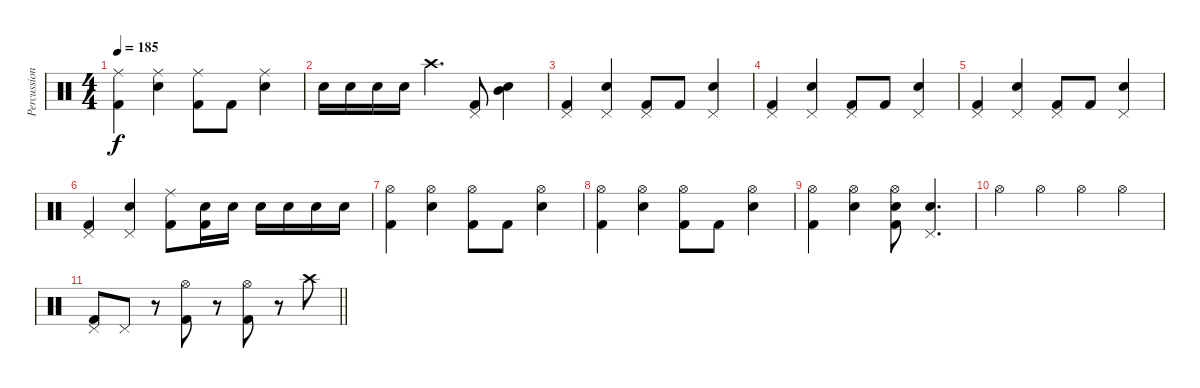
\track ("Percussion" "Percussion") {instrument percussion}
\staff {score}
\articulation defaults
\ts (4 4)
\tempo 185
\clef neutral
\ks c
("Ride (middle)" "Kick (hit) 2").4{dy f} ("Ride (middle)" "Electric Snare (hit)").4 ("Ride (middle)" "Kick (hit) 2").8 "Kick (hit) 2".8 ("Ride (middle)" "Electric Snare (hit)").4 |
"Electric Snare (hit)".16 "Electric Snare (hit)".16 "Electric Snare (hit)".16 "Electric Snare (hit)".16 "Crash high (hit)".4{d} ("Kick (hit) 2" "Pedal Hi-Hat (hit)").8 ("Mid Tom (hit)" "Electric Snare (hit)").4 |
("Pedal Hi-Hat (hit)" "Kick (hit) 2").4 ("Pedal Hi-Hat (hit)" "Electric Snare (hit)").4 ("Pedal Hi-Hat (hit)" "Kick (hit) 2").8 "Kick (hit) 2".8 ("Pedal Hi-Hat (hit)" "Electric Snare (hit)").4 |
("Pedal Hi-Hat (hit)" "Kick (hit) 2").4 ("Pedal Hi-Hat (hit)" "Electric Snare (hit)").4 ("Pedal Hi-Hat (hit)" "Kick (hit) 2").8 "Kick (hit) 2".8 ("Pedal Hi-Hat (hit)" "Electric Snare (hit)").4 |
("Pedal Hi-Hat (hit)" "Kick (hit) 2").4 ("Pedal Hi-Hat (hit)" "Electric Snare (hit)").4 ("Pedal Hi-Hat (hit)" "Kick (hit) 2").8 "Kick (hit) 2".8 ("Pedal Hi-Hat (hit)" "Electric Snare (hit)").4 |
("Pedal Hi-Hat (hit)" "Kick (hit) 2").4 ("Pedal Hi-Hat (hit)" "Electric Snare (hit)").4 ("Ride (middle)" "Kick (hit) 2").8 ("Electric Snare (hit)" "Kick (hit) 2").16 "Electric Snare (hit)".16 "Electric Snare (hit)".16 "Electric Snare (hit)".16 "Electric Snare (hit)".16 "Electric Snare (hit)".16 |
("Hi-Hat (open)" "Kick (hit) 2").4 ("Hi-Hat (open)" "Electric Snare (hit)").4 ("Hi-Hat (open)" "Kick (hit) 2").8 "Kick (hit) 2".8 ("Hi-Hat (open)" "Electric Snare (hit)").4 |
("Hi-Hat (open)" "Kick (hit) 2").4 ("Hi-Hat (open)" "Electric Snare (hit)").4 ("Hi-Hat (open)" "Kick (hit) 2").8 "Kick (hit) 2".8 ("Hi-Hat (open)" "Electric Snare (hit)").4 |
("Hi-Hat (open)" "Kick (hit) 2").4 ("Hi-Hat (open)" "Electric Snare (hit)").4 ("Kick (hit) 2" "Electric Snare (hit)" "Hi-Hat (open)").8 ("Electric Snare (hit)" "Pedal Hi-Hat (hit)").4{d} |
"Hi-Hat (open)".4 "Hi-Hat (open)".4 "Hi-Hat (open)".4 "Hi-Hat (open)".4 |
\barLineRight lightlight
("Kick (hit) 2" "Pedal Hi-Hat (hit)").8 "Pedal Hi-Hat (hit)".8 r.8 ("Kick (hit) 2" "Hi-Hat (open)").8 r.8 ("Hi-Hat (open)" "Kick (hit) 2").8 r.8 "Crash high (hit)".8
